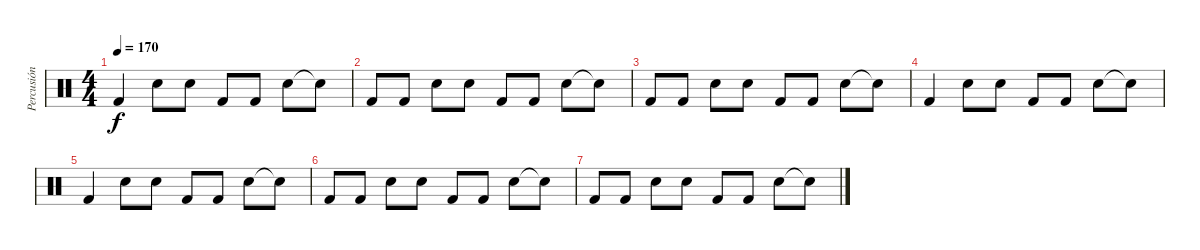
\track ("Percusión" "Percusión") {instrument percussion}
\staff {score}
\articulation defaults
\ts (4 4)
\tempo 170
\clef neutral
\ks c "Kick (hit) 2".4{dy f} "Electric Snare (hit)".8 "Electric Snare (hit)".8 "Kick (hit) 2".8 "Kick (hit) 2".8 "Electric Snare (hit)".8 "Electric Snare (hit)"{t}.8
|
"Kick (hit) 2".8 "Kick (hit) 2".8 "Electric Snare (hit)".8 "Electric Snare (hit)".8 "Kick (hit) 2".8 "Kick (hit) 2".8 "Electric Snare (hit)".8 "Snare (hit)"{t}.8 |
"Kick (hit) 2".8 "Kick (hit) 2".8 "Electric Snare (hit)".8 "Electric Snare (hit)".8 "Kick (hit) 2".8 "Kick (hit) 2".8 "Electric Snare (hit)".8 "Snare (hit)"{t}.8 |
"Kick (hit) 2".4 "Electric Snare (hit)".8 "Electric Snare (hit)".8 "Kick (hit) 2".8 "Kick (hit) 2".8 "Electric Snare (hit)".8 "Electric Snare (hit)"{t}.8 |
"Kick (hit) 2".4 "Electric Snare (hit)".8 "Electric Snare (hit)".8 "Kick (hit) 2".8 "Kick (hit) 2".8 "Electric Snare (hit)".8 "Electric Snare (hit)"{t}.8 |
"Kick (hit) 2".8 "Kick (hit) 2".8 "Electric Snare (hit)".8 "Electric Snare (hit)".8 "Kick (hit) 2".8 "Kick (hit) 2".8 "Electric Snare (hit)".8 "Snare (hit)"{t}.8 |
"Kick (hit) 2".8 "Kick (hit) 2".8 "Electric Snare (hit)".8 "Electric Snare (hit)".8 "Kick (hit) 2".8 "Kick (hit) 2".8 "Electric Snare (hit)".8 "Snare (hit)"{t}.8
